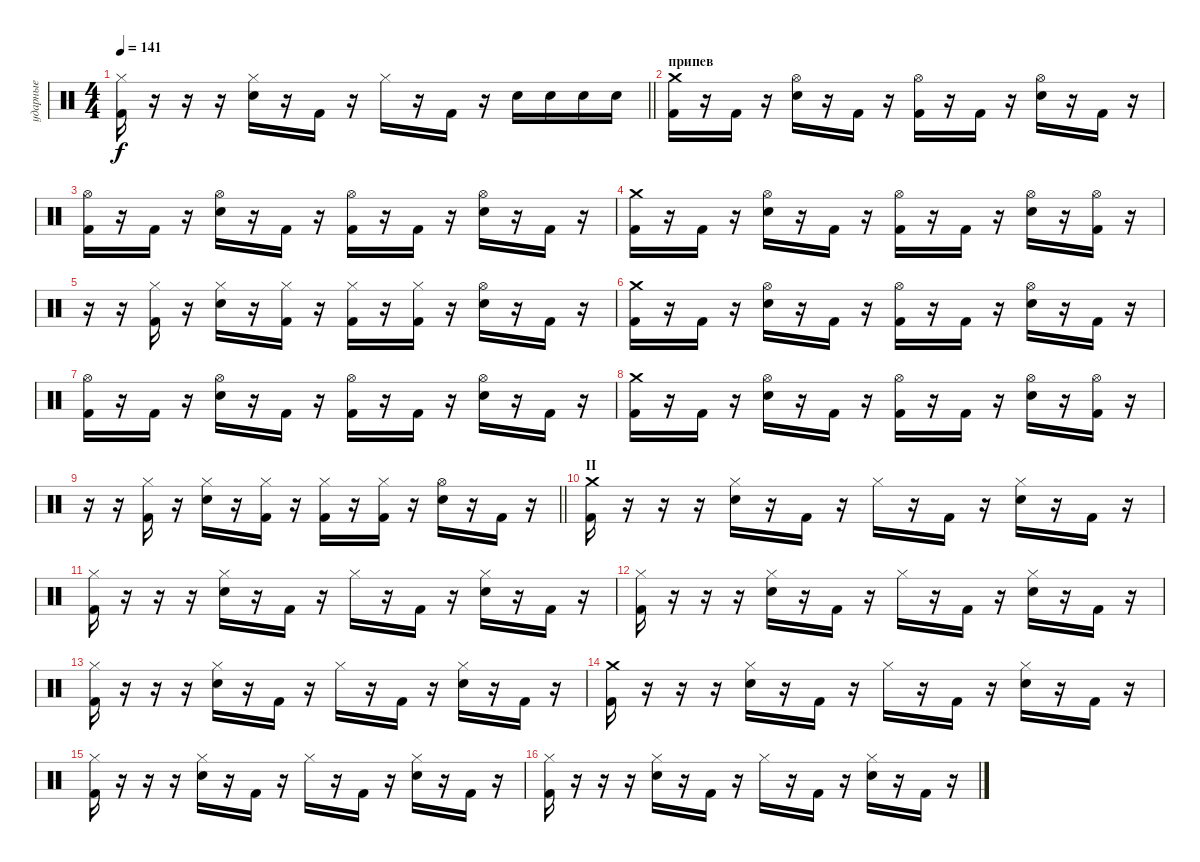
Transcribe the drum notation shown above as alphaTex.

\track ("ударные" "ударные") {instrument percussion}
\staff {score}
\articulation defaults
\ts (4 4)
\tempo 141
\clef neutral
\barLineRight lightlight
\ks c
("Kick (hit) 2" "Hi-Hat (closed)").16{dy f} r.16 r.16 r.16 ("Snare (hit) 2" "Hi-Hat (closed)").16 r.16 "Kick (hit) 2".16 r.16 "Hi-Hat (closed)".16 r.16 "Kick (hit) 2".16 r.16 "Snare (hit) 2".16 "Snare (hit) 2".16 "Snare (hit) 2".16 "Snare (hit) 2".16 |
\section ("" "припев")
("Kick (hit) 2" "Crash medium (hit)").16 r.16 "Kick (hit) 2".16 r.16 ("Snare (hit) 2" "Hi-Hat (open)").16 r.16 "Kick (hit) 2".16 r.16 ("Kick (hit) 2" "Hi-Hat (open)").16 r.16 "Kick (hit) 2".16 r.16 ("Snare (hit) 2" "Hi-Hat (open)").16 r.16 "Kick (hit) 2".16 r.16 |
("Kick (hit) 2" "Hi-Hat (open)").16 r.16 "Kick (hit) 2".16 r.16 ("Snare (hit) 2" "Hi-Hat (open)").16 r.16 "Kick (hit) 2".16 r.16 ("Kick (hit) 2" "Hi-Hat (open)").16 r.16 "Kick (hit) 2".16 r.16 ("Snare (hit) 2" "Hi-Hat (open)").16 r.16 "Kick (hit) 2".16 r.16 |
("Kick (hit) 2" "Crash medium (hit)").16 r.16 "Kick (hit) 2".16 r.16 ("Snare (hit) 2" "Hi-Hat (open)").16 r.16 "Kick (hit) 2".16 r.16 ("Kick (hit) 2" "Hi-Hat (open)").16 r.16 "Kick (hit) 2".16 r.16 ("Electric Snare (hit)" "Hi-Hat (open)").16 r.16 ("Kick (hit) 2" "Hi-Hat (open)").16 r.16 |
r.16 r.16 ("Kick (hit) 2" "Hi-Hat (closed)").16 r.16 ("Snare (hit) 2" "Hi-Hat (closed)").16 r.16 ("Kick (hit) 2" "Hi-Hat (closed)").16 r.16 ("Kick (hit) 2" "Hi-Hat (closed)").16 r.16 ("Kick (hit) 2" "Hi-Hat (closed)").16 r.16 ("Snare (hit) 2" "Hi-Hat (open)").16 r.16 "Kick (hit) 2".16 r.16 |
("Kick (hit) 2" "Crash medium (hit)").16 r.16 "Kick (hit) 2".16 r.16 ("Snare (hit) 2" "Hi-Hat (open)").16 r.16 "Kick (hit) 2".16 r.16 ("Kick (hit) 2" "Hi-Hat (open)").16 r.16 "Kick (hit) 2".16 r.16 ("Snare (hit) 2" "Hi-Hat (open)").16 r.16 "Kick (hit) 2".16 r.16 |
("Kick (hit) 2" "Hi-Hat (open)").16 r.16 "Kick (hit) 2".16 r.16 ("Snare (hit) 2" "Hi-Hat (open)").16 r.16 "Kick (hit) 2".16 r.16 ("Kick (hit) 2" "Hi-Hat (open)").16 r.16 "Kick (hit) 2".16 r.16 ("Snare (hit) 2" "Hi-Hat (open)").16 r.16 "Kick (hit) 2".16 r.16 |
("Kick (hit) 2" "Crash medium (hit)").16 r.16 "Kick (hit) 2".16 r.16 ("Snare (hit) 2" "Hi-Hat (open)").16 r.16 "Kick (hit) 2".16 r.16 ("Kick (hit) 2" "Hi-Hat (open)").16 r.16 "Kick (hit) 2".16 r.16 ("Electric Snare (hit)" "Hi-Hat (open)").16 r.16 ("Kick (hit) 2" "Hi-Hat (open)").16 r.16 |
\barLineRight lightlight
r.16 r.16 ("Kick (hit) 2" "Hi-Hat (closed)").16 r.16 ("Snare (hit) 2" "Hi-Hat (closed)").16 r.16 ("Kick (hit) 2" "Hi-Hat (closed)").16 r.16 ("Kick (hit) 2" "Hi-Hat (closed)").16 r.16 ("Kick (hit) 2" "Hi-Hat (closed)").16 r.16 ("Snare (hit) 2" "Hi-Hat (open)").16 r.16 "Kick (hit) 2".16 r.16 |
\section ("" "II")
("Kick (hit) 2" "Crash medium (hit)").16 r.16 r.16 r.16 ("Snare (hit) 2" "Hi-Hat (closed)").16 r.16 "Kick (hit) 2".16 r.16 "Hi-Hat (closed)".16 r.16 "Kick (hit) 2".16 r.16 ("Snare (hit) 2" "Hi-Hat (closed)").16 r.16 "Kick (hit) 2".16 r.16 |
("Kick (hit) 2" "Hi-Hat (closed)").16 r.16 r.16 r.16 ("Snare (hit) 2" "Hi-Hat (closed)").16 r.16 "Kick (hit) 2".16 r.16 "Hi-Hat (closed)".16 r.16 "Kick (hit) 2".16 r.16 ("Snare (hit) 2" "Hi-Hat (closed)").16 r.16 "Kick (hit) 2".16 r.16 |
("Kick (hit) 2" "Hi-Hat (closed)").16 r.16 r.16 r.16 ("Snare (hit) 2" "Hi-Hat (closed)").16 r.16 "Kick (hit) 2".16 r.16 "Hi-Hat (closed)".16 r.16 "Kick (hit) 2".16 r.16 ("Snare (hit) 2" "Hi-Hat (closed)").16 r.16 "Kick (hit) 2".16 r.16 |
("Kick (hit) 2" "Hi-Hat (closed)").16 r.16 r.16 r.16 ("Snare (hit) 2" "Hi-Hat (closed)").16 r.16 "Kick (hit) 2".16 r.16 "Hi-Hat (closed)".16 r.16 "Kick (hit) 2".16 r.16 ("Snare (hit) 2" "Hi-Hat (closed)").16 r.16 "Kick (hit) 2".16 r.16 |
("Kick (hit) 2" "Crash medium (hit)").16 r.16 r.16 r.16 ("Snare (hit) 2" "Hi-Hat (closed)").16 r.16 "Kick (hit) 2".16 r.16 "Hi-Hat (closed)".16 r.16 "Kick (hit) 2".16 r.16 ("Snare (hit) 2" "Hi-Hat (closed)").16 r.16 "Kick (hit) 2".16 r.16 |
("Kick (hit) 2" "Hi-Hat (closed)").16 r.16 r.16 r.16 ("Snare (hit) 2" "Hi-Hat (closed)").16 r.16 "Kick (hit) 2".16 r.16 "Hi-Hat (closed)".16 r.16 "Kick (hit) 2".16 r.16 ("Snare (hit) 2" "Hi-Hat (closed)").16 r.16 "Kick (hit) 2".16 r.16 |
("Kick (hit) 2" "Hi-Hat (closed)").16 r.16 r.16 r.16 ("Snare (hit) 2" "Hi-Hat (closed)").16 r.16 "Kick (hit) 2".16 r.16 "Hi-Hat (closed)".16 r.16 "Kick (hit) 2".16 r.16 ("Snare (hit) 2" "Hi-Hat (closed)").16 r.16 "Kick (hit) 2".16 r.16
